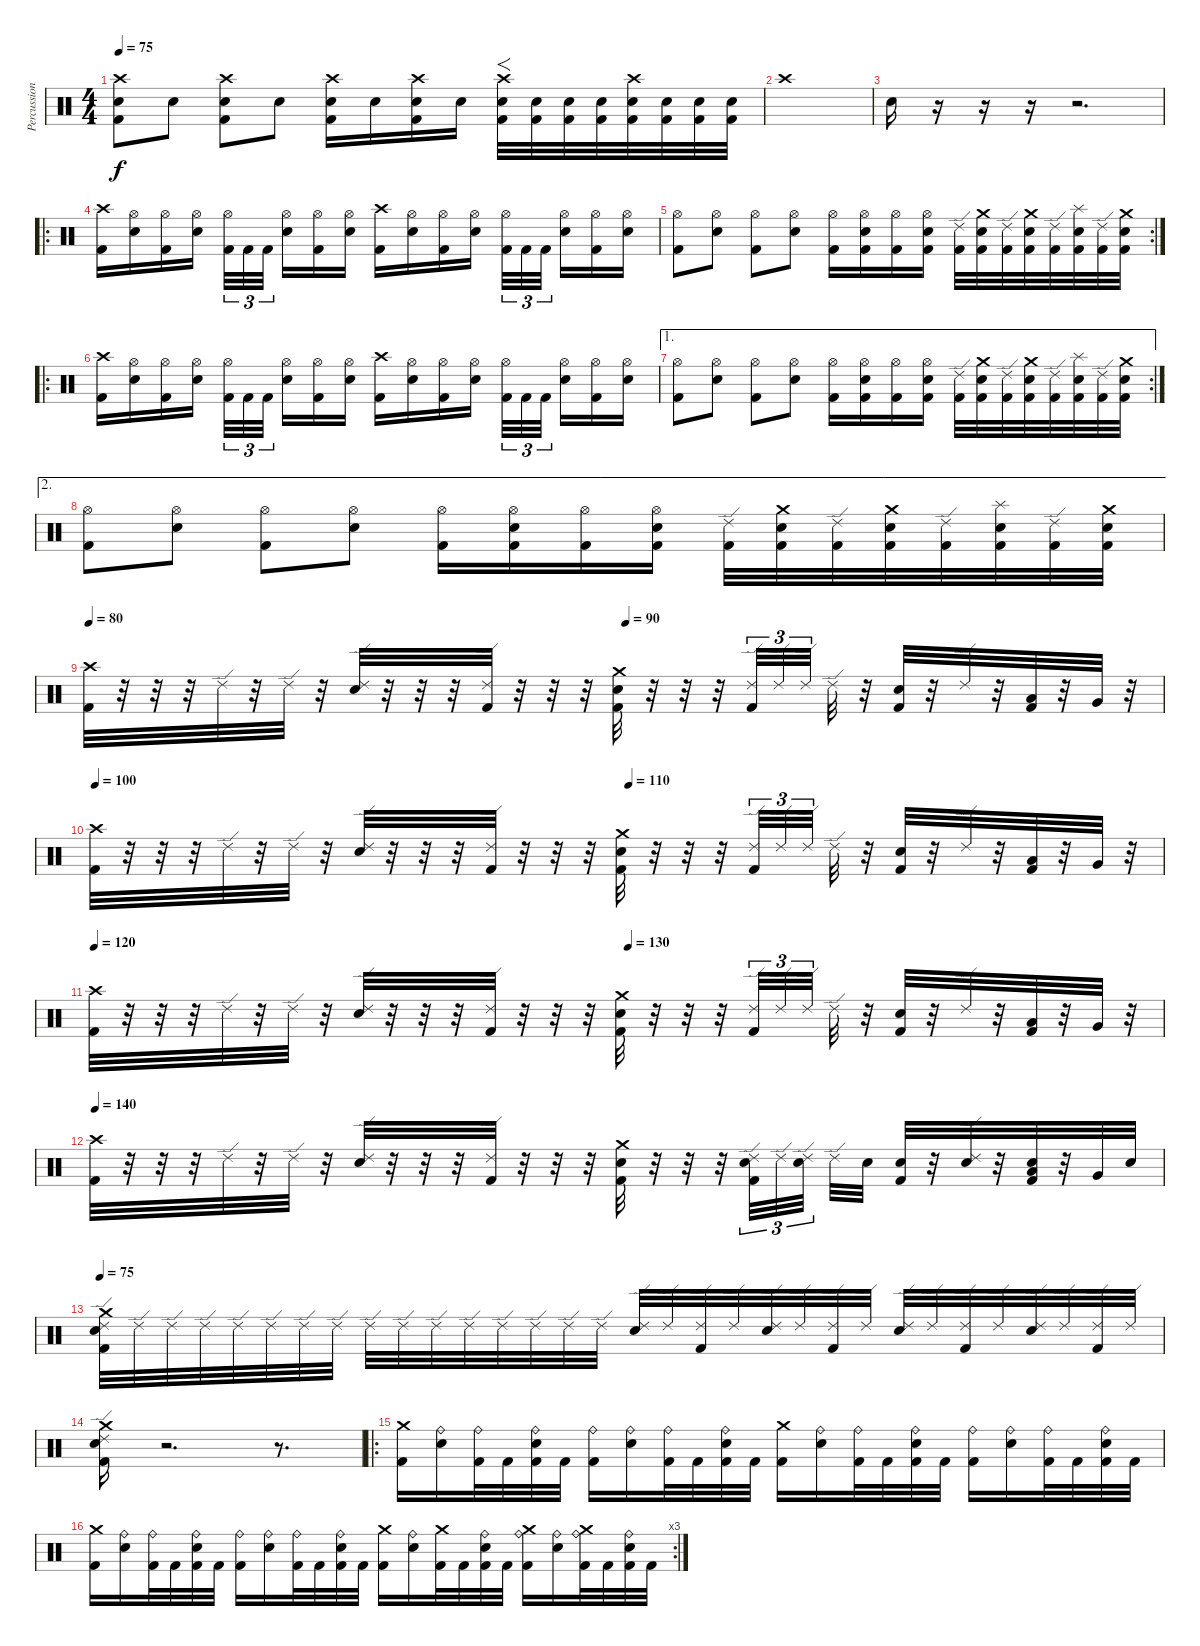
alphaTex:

\track ("Percussion" "Percussion") {instrument percussion}
\staff {score}
\articulation defaults
\ts (4 4)
\tempo 75
\clef neutral
\ks c
("Crash high (hit)" "Electric Snare (hit)" "Kick (hit) 2").8{dy f volume 10} "Electric Snare (hit)".8 ("Crash high (hit)" "Electric Snare (hit)" "Kick (hit) 2").8 "Electric Snare (hit)".8 ("Crash high (hit)" "Electric Snare (hit)" "Kick (hit) 2").16 "Electric Snare (hit)".16 ("Crash high (hit)" "Electric Snare (hit)" "Kick (hit) 2").16 "Electric Snare (hit)".16 ("Crash high (hit)" "Electric Snare (hit)" "Kick (hit) 2").32{f} ("Electric Snare (hit)" "Kick (hit) 2").32 ("Electric Snare (hit)" "Kick (hit) 2").32 ("Electric Snare (hit)" "Kick (hit) 2").32 ("Crash high (hit)" "Electric Snare (hit)" "Kick (hit) 2").32 ("Electric Snare (hit)" "Kick (hit) 2").32 ("Electric Snare (hit)" "Kick (hit) 2").32 ("Electric Snare (hit)" "Kick (hit) 2").32 |
"Crash high (hit)".1 |
"Electric Snare (hit)".16 r.16 r.16 r.16 r.2{d} |
\ro
("Crash high (hit)" "Kick (hit) 2").16 ("Hi-Hat (open)" "Electric Snare (hit)").16 ("Hi-Hat (open)" "Kick (hit) 2").16 ("Hi-Hat (open)" "Electric Snare (hit)").16 ("Hi-Hat (open)" "Kick (hit) 2").32{tu (3 2)} "Kick (hit) 2".32{tu (3 2)} "Kick (hit) 2".32{tu (3 2)} ("Hi-Hat (open)" "Electric Snare (hit)").16 ("Hi-Hat (open)" "Kick (hit) 2").16 ("Hi-Hat (open)" "Electric Snare (hit)").16 ("Crash high (hit)" "Kick (hit) 2").16 ("Hi-Hat (open)" "Electric Snare (hit)").16 ("Hi-Hat (open)" "Kick (hit) 2").16 ("Hi-Hat (open)" "Electric Snare (hit)").16 ("Hi-Hat (open)" "Kick (hit) 2").32{tu (3 2)} "Kick (hit) 2".32{tu (3 2)} "Kick (hit) 2".32{tu (3 2)} ("Hi-Hat (open)" "Electric Snare (hit)").16 ("Hi-Hat (open)" "Kick (hit) 2").16 ("Hi-Hat (open)" "Electric Snare (hit)").16 |
\rc 2
("Hi-Hat (open)" "Kick (hit) 2").8 ("Hi-Hat (open)" "Electric Snare (hit)").8 ("Hi-Hat (open)" "Kick (hit) 2").8 ("Hi-Hat (open)" "Electric Snare (hit)").8 ("Hi-Hat (open)" "Kick (hit) 2").16 ("Hi-Hat (open)" "Electric Snare (hit)" "Kick (hit) 2").16 ("Hi-Hat (open)" "Kick (hit) 2").16 ("Hi-Hat (open)" "Electric Snare (hit)" "Kick (hit) 2").16 ("Ride (edge) 2" "Kick (hit) 2").32 ("Crash medium (hit)" "Electric Snare (hit)" "Kick (hit) 2").32 ("Ride (edge) 2" "Kick (hit) 2").32 ("Crash medium (hit)" "Electric Snare (hit)" "Kick (hit) 2").32 ("Ride (edge) 2" "Kick (hit) 2").32 ("Splash (hit)" "Electric Snare (hit)" "Kick (hit) 2").32 ("Ride (edge) 2" "Kick (hit) 2").32 ("Crash medium (hit)" "Electric Snare (hit)" "Kick (hit) 2").32 |
\ro
("Crash high (hit)" "Kick (hit) 2").16 ("Hi-Hat (open)" "Electric Snare (hit)").16 ("Hi-Hat (open)" "Kick (hit) 2").16 ("Hi-Hat (open)" "Electric Snare (hit)").16 ("Hi-Hat (open)" "Kick (hit) 2").32{tu (3 2)} "Kick (hit) 2".32{tu (3 2)} "Kick (hit) 2".32{tu (3 2)} ("Hi-Hat (open)" "Electric Snare (hit)").16 ("Hi-Hat (open)" "Kick (hit) 2").16 ("Hi-Hat (open)" "Electric Snare (hit)").16 ("Crash high (hit)" "Kick (hit) 2").16 ("Hi-Hat (open)" "Electric Snare (hit)").16 ("Hi-Hat (open)" "Kick (hit) 2").16 ("Hi-Hat (open)" "Electric Snare (hit)").16 ("Hi-Hat (open)" "Kick (hit) 2").32{tu (3 2)} "Kick (hit) 2".32{tu (3 2)} "Kick (hit) 2".32{tu (3 2)} ("Hi-Hat (open)" "Electric Snare (hit)").16 ("Hi-Hat (open)" "Kick (hit) 2").16 ("Hi-Hat (open)" "Electric Snare (hit)").16 |
\ae 1
\rc 2
("Hi-Hat (open)" "Kick (hit) 2").8 ("Hi-Hat (open)" "Electric Snare (hit)").8 ("Hi-Hat (open)" "Kick (hit) 2").8 ("Hi-Hat (open)" "Electric Snare (hit)").8 ("Hi-Hat (open)" "Kick (hit) 2").16 ("Hi-Hat (open)" "Electric Snare (hit)" "Kick (hit) 2").16 ("Hi-Hat (open)" "Kick (hit) 2").16 ("Hi-Hat (open)" "Electric Snare (hit)" "Kick (hit) 2").16 ("Ride (edge) 2" "Kick (hit) 2").32 ("Crash medium (hit)" "Electric Snare (hit)" "Kick (hit) 2").32 ("Ride (edge) 2" "Kick (hit) 2").32 ("Crash medium (hit)" "Electric Snare (hit)" "Kick (hit) 2").32 ("Ride (edge) 2" "Kick (hit) 2").32 ("Splash (hit)" "Electric Snare (hit)" "Kick (hit) 2").32 ("Ride (edge) 2" "Kick (hit) 2").32 ("Crash medium (hit)" "Electric Snare (hit)" "Kick (hit) 2").32 |
\ae 2
("Hi-Hat (open)" "Kick (hit) 2").8 ("Hi-Hat (open)" "Electric Snare (hit)").8 ("Hi-Hat (open)" "Kick (hit) 2").8 ("Hi-Hat (open)" "Electric Snare (hit)").8 ("Hi-Hat (open)" "Kick (hit) 2").16 ("Hi-Hat (open)" "Electric Snare (hit)" "Kick (hit) 2").16 ("Hi-Hat (open)" "Kick (hit) 2").16 ("Hi-Hat (open)" "Electric Snare (hit)" "Kick (hit) 2").16 ("Ride (edge) 2" "Kick (hit) 2").32 ("Crash medium (hit)" "Electric Snare (hit)" "Kick (hit) 2").32 ("Ride (edge) 2" "Kick (hit) 2").32 ("Crash medium (hit)" "Electric Snare (hit)" "Kick (hit) 2").32 ("Ride (edge) 2" "Kick (hit) 2").32 ("Splash (hit)" "Electric Snare (hit)" "Kick (hit) 2").32 ("Ride (edge) 2" "Kick (hit) 2").32 ("Crash medium (hit)" "Electric Snare (hit)" "Kick (hit) 2").32 |
\tempo 80
\tempo (90 0.5)
("Crash high (hit)" "Kick (hit) 2").32 r.32 r.32 r.32 "Ride (edge) 2".32 r.32 "Ride (edge) 2".32 r.32 ("Ride (edge) 2" "Electric Snare (hit)").32 r.32 r.32 r.32 ("Ride (edge) 2" "Kick (hit) 2").32 r.32 r.32 r.32 ("Crash medium (hit)" "Electric Snare (hit)" "Kick (hit) 2").32 r.32 r.32 r.32 ("Ride (edge) 2" "Kick (hit) 2").32{tu (3 2)} "Ride (edge) 2".32{tu (3 2)} "Ride (edge) 2".32{tu (3 2)} "Ride (edge) 2".32 r.32 ("Electric Snare (hit)" "Kick (hit) 2").32 r.32 "Ride (edge) 2".32 r.32 ("Low Tom (hit)" "Kick (hit) 2").32 r.32 "Very Low Tom (hit)".32 r.32 |
\tempo 100
\tempo (110 0.5)
("Crash high (hit)" "Kick (hit) 2").32 r.32 r.32 r.32 "Ride (edge) 2".32 r.32 "Ride (edge) 2".32 r.32 ("Ride (edge) 2" "Electric Snare (hit)").32 r.32 r.32 r.32 ("Ride (edge) 2" "Kick (hit) 2").32 r.32 r.32 r.32 ("Crash medium (hit)" "Electric Snare (hit)" "Kick (hit) 2").32 r.32 r.32 r.32 ("Ride (edge) 2" "Kick (hit) 2").32{tu (3 2)} "Ride (edge) 2".32{tu (3 2)} "Ride (edge) 2".32{tu (3 2)} "Ride (edge) 2".32 r.32 ("Electric Snare (hit)" "Kick (hit) 2").32 r.32 "Ride (edge) 2".32 r.32 ("Low Tom (hit)" "Kick (hit) 2").32 r.32 "Very Low Tom (hit)".32 r.32 |
\tempo 120
\tempo (130 0.5)
("Crash high (hit)" "Kick (hit) 2").32 r.32 r.32 r.32 "Ride (edge) 2".32 r.32 "Ride (edge) 2".32 r.32 ("Ride (edge) 2" "Electric Snare (hit)").32 r.32 r.32 r.32 ("Ride (edge) 2" "Kick (hit) 2").32 r.32 r.32 r.32 ("Crash medium (hit)" "Electric Snare (hit)" "Kick (hit) 2").32 r.32 r.32 r.32 ("Ride (edge) 2" "Kick (hit) 2").32{tu (3 2)} "Ride (edge) 2".32{tu (3 2)} "Ride (edge) 2".32{tu (3 2)} "Ride (edge) 2".32 r.32 ("Electric Snare (hit)" "Kick (hit) 2").32 r.32 "Ride (edge) 2".32 r.32 ("Low Tom (hit)" "Kick (hit) 2").32 r.32 "Very Low Tom (hit)".32 r.32 |
\tempo 140
("Crash high (hit)" "Kick (hit) 2").32 r.32 r.32 r.32 "Ride (edge) 2".32 r.32 "Ride (edge) 2".32 r.32 ("Ride (edge) 2" "Electric Snare (hit)").32 r.32 r.32 r.32 ("Ride (edge) 2" "Kick (hit) 2").32 r.32 r.32 r.32 ("Crash medium (hit)" "Electric Snare (hit)" "Kick (hit) 2").32 r.32 r.32 r.32 ("Ride (edge) 2" "Electric Snare (hit)" "Kick (hit) 2").32{tu (3 2)} "Ride (edge) 2".32{tu (3 2)} ("Ride (edge) 2" "Electric Snare (hit)").32{tu (3 2)} "Ride (edge) 2".32 "Electric Snare (hit)".32 ("Electric Snare (hit)" "Kick (hit) 2").32 r.32 ("Electric Snare (hit)" "Ride (edge) 2").32 r.32 ("Low Tom (hit)" "Electric Snare (hit)" "Kick (hit) 2").32 r.32 "Very Low Tom (hit)".32 "Electric Snare (hit)".32 |
\tempo 75
("Crash medium (hit)" "Electric Snare (hit)" "Ride (edge) 2" "Kick (hit) 2").32 "Ride (edge) 2".32 "Ride (edge) 2".32 "Ride (edge) 2".32 "Ride (edge) 2".32 "Ride (edge) 2".32 "Ride (edge) 2".32 "Ride (edge) 2".32 "Ride (edge) 2".32 "Ride (edge) 2".32 "Ride (edge) 2".32 "Ride (edge) 2".32 "Ride (edge) 2".32 "Ride (edge) 2".32 "Ride (edge) 2".32 "Ride (edge) 2".32 ("Electric Snare (hit)" "Ride (edge) 2").32 "Ride (edge) 2".32 ("Ride (edge) 2" "Kick (hit) 2").32 "Ride (edge) 2".32 ("Electric Snare (hit)" "Ride (edge) 2").32 "Ride (edge) 2".32 ("Ride (edge) 2" "Kick (hit) 2").32 "Ride (edge) 2".32 ("Electric Snare (hit)" "Ride (edge) 2").32 "Ride (edge) 2".32 ("Ride (edge) 2" "Kick (hit) 2").32 "Ride (edge) 2".32 ("Electric Snare (hit)" "Ride (edge) 2").32 "Ride (edge) 2".32 ("Ride (edge) 2" "Kick (hit) 2").32 "Ride (edge) 2".32 |
("Crash medium (hit)" "Electric Snare (hit)" "Ride (edge) 2" "Kick (hit) 2").16 r.2{d} r.8{d} |
\ro
("Crash medium (hit)" "Kick (hit) 2").16 ("Ride (bell)" "Electric Snare (hit)").16 ("Ride (bell)" "Kick (hit) 2").32 "Kick (hit) 2".32 ("Ride (bell)" "Electric Snare (hit)" "Kick (hit) 2").32 "Kick (hit) 2".32 ("Ride (bell)" "Kick (hit) 2").16 ("Ride (bell)" "Electric Snare (hit)").16 ("Ride (bell)" "Kick (hit) 2").32 "Kick (hit) 2".32 ("Ride (bell)" "Electric Snare (hit)" "Kick (hit) 2").32 "Kick (hit) 2".32 ("Crash medium (hit)" "Kick (hit) 2").16 ("Ride (bell)" "Electric Snare (hit)").16 ("Ride (bell)" "Kick (hit) 2").32 "Kick (hit) 2".32 ("Ride (bell)" "Electric Snare (hit)" "Kick (hit) 2").32 "Kick (hit) 2".32 ("Ride (bell)" "Kick (hit) 2").16 ("Ride (bell)" "Electric Snare (hit)").16 ("Ride (bell)" "Kick (hit) 2").32 "Kick (hit) 2".32 ("Ride (bell)" "Electric Snare (hit)" "Kick (hit) 2").32 "Kick (hit) 2".32 |
\rc 3
("Crash medium (hit)" "Kick (hit) 2").16 ("Ride (bell)" "Electric Snare (hit)").16 ("Ride (bell)" "Kick (hit) 2").32 "Kick (hit) 2".32 ("Ride (bell)" "Electric Snare (hit)" "Kick (hit) 2").32 "Kick (hit) 2".32 ("Ride (bell)" "Kick (hit) 2").16 ("Ride (bell)" "Electric Snare (hit)").16 ("Ride (bell)" "Kick (hit) 2").32 "Kick (hit) 2".32 ("Ride (bell)" "Electric Snare (hit)" "Kick (hit) 2").32 "Kick (hit) 2".32 ("Crash medium (hit)" "Kick (hit) 2").16 ("Ride (bell)" "Electric Snare (hit)").16 ("Crash medium (hit)" "Kick (hit) 2").32 "Kick (hit) 2".32 ("Ride (bell)" "Electric Snare (hit)" "Kick (hit) 2").32 "Kick (hit) 2".32 ("Crash medium (hit)" "Ride (bell)" "Kick (hit) 2").16 ("Ride (bell)" "Electric Snare (hit)").16 ("Crash medium (hit)" "Ride (bell)" "Kick (hit) 2").32 "Kick (hit) 2".32 ("Ride (bell)" "Electric Snare (hit)" "Kick (hit) 2").32 "Kick (hit) 2".32
